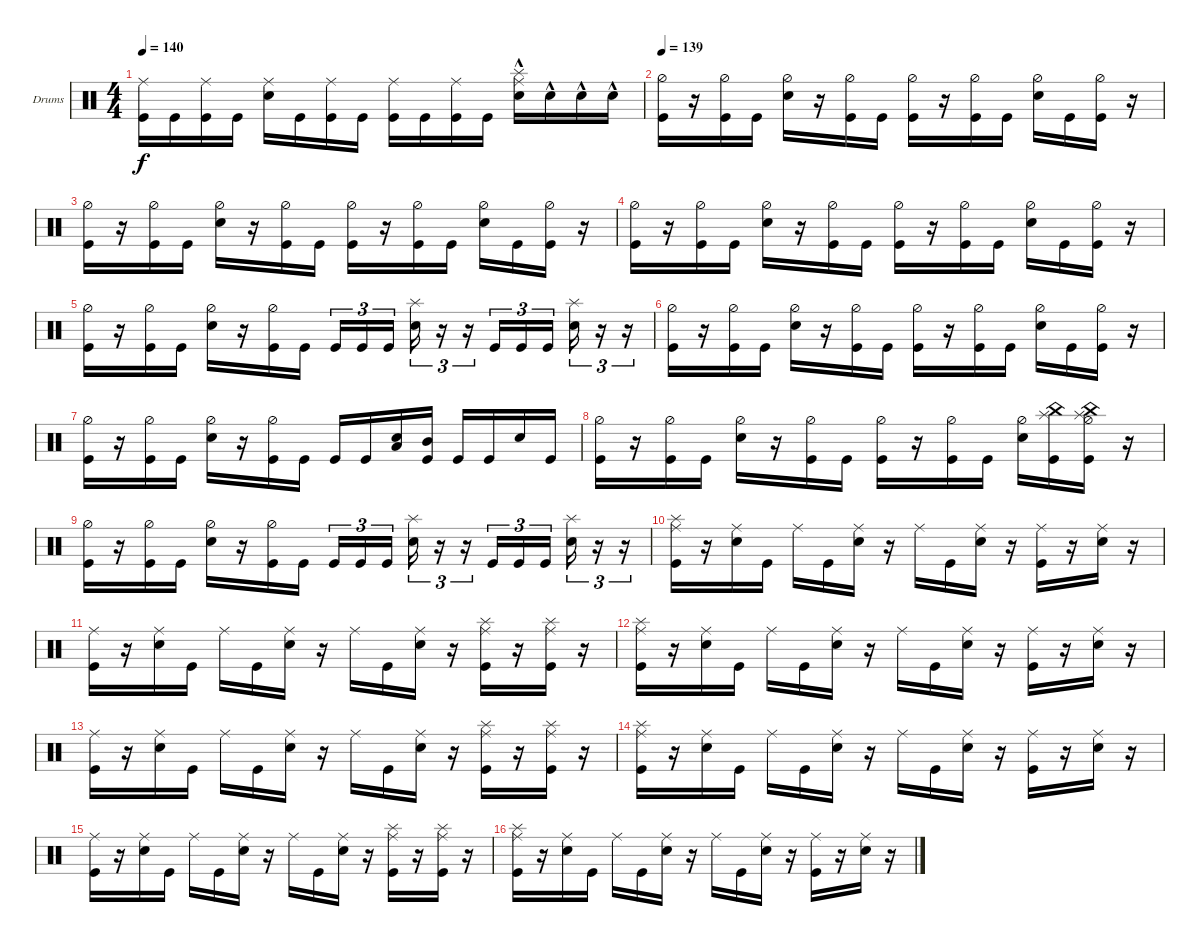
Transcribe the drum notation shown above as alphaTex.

\bracketExtendMode groupsimilarinstruments
\firstSystemTrackNameOrientation horizontal
\otherSystemsTrackNameOrientation horizontal
\track ("Drumkit" "Drums") {instrument percussion}
\staff {score}
\articulation defaults
\ts (4 4)
\tempo 140
\clef neutral
\ks c
("Kick (hit)" "Ride (middle)").16{dy f} "Kick (hit)".16 ("Kick (hit)" "Ride (middle)").16 "Kick (hit)".16 ("Snare (hit) 2" "Ride (middle)").16 "Kick (hit)".16 ("Kick (hit)" "Ride (middle)").16 "Kick (hit)".16 ("Kick (hit)" "Ride (middle)").16 "Kick (hit)".16 ("Kick (hit)" "Ride (middle)").16 "Kick (hit)".16 ("Snare (hit) 2"{hac} "Ride (middle)" "Splash (hit)").16 "Snare (hit) 2"{hac}.16 "Snare (hit) 2"{hac}.16 "Snare (hit) 2"{hac}.16 |
\tempo 139
("Kick (hit)" "Hi-Hat (half)").16 r.16 ("Kick (hit)" "Hi-Hat (half)").16 "Kick (hit)".16 ("Snare (hit) 2" "Hi-Hat (half)").16 r.16 ("Kick (hit)" "Hi-Hat (half)").16 "Kick (hit)".16 ("Kick (hit)" "Hi-Hat (half)").16 r.16 ("Kick (hit)" "Hi-Hat (half)").16 "Kick (hit)".16 ("Snare (hit) 2" "Hi-Hat (half)").16 "Kick (hit)".16 ("Kick (hit)" "Hi-Hat (half)").16 r.16 |
("Kick (hit)" "Hi-Hat (half)").16 r.16 ("Kick (hit)" "Hi-Hat (half)").16 "Kick (hit)".16 ("Snare (hit) 2" "Hi-Hat (half)").16 r.16 ("Kick (hit)" "Hi-Hat (half)").16 "Kick (hit)".16 ("Kick (hit)" "Hi-Hat (half)").16 r.16 ("Kick (hit)" "Hi-Hat (half)").16 "Kick (hit)".16 ("Snare (hit) 2" "Hi-Hat (half)").16 "Kick (hit)".16 ("Kick (hit)" "Hi-Hat (half)").16 r.16 |
("Kick (hit)" "Hi-Hat (half)").16 r.16 ("Kick (hit)" "Hi-Hat (half)").16 "Kick (hit)".16 ("Snare (hit) 2" "Hi-Hat (half)").16 r.16 ("Kick (hit)" "Hi-Hat (half)").16 "Kick (hit)".16 ("Kick (hit)" "Hi-Hat (half)").16 r.16 ("Kick (hit)" "Hi-Hat (half)").16 "Kick (hit)".16 ("Snare (hit) 2" "Hi-Hat (half)").16 "Kick (hit)".16 ("Kick (hit)" "Hi-Hat (half)").16 r.16 |
("Kick (hit)" "Hi-Hat (half)").16 r.16 ("Kick (hit)" "Hi-Hat (half)").16 "Kick (hit)".16 ("Snare (hit) 2" "Hi-Hat (half)").16 r.16 ("Kick (hit)" "Hi-Hat (half)").16 "Kick (hit)".16 "Kick (hit)".16{tu (3 2)} "Kick (hit)".16{tu (3 2)} "Kick (hit)".16{tu (3 2)} ("Snare (hit) 2" "Splash (hit)").16{tu (3 2)} r.16{tu (3 2)} r.16{tu (3 2)} "Kick (hit)".16{tu (3 2)} "Kick (hit)".16{tu (3 2)} "Kick (hit)".16{tu (3 2)} ("Snare (hit) 2" "Splash (hit)").16{tu (3 2)} r.16{tu (3 2)} r.16{tu (3 2)} |
("Kick (hit)" "Hi-Hat (half)").16 r.16 ("Kick (hit)" "Hi-Hat (half)").16 "Kick (hit)".16 ("Snare (hit) 2" "Hi-Hat (half)").16 r.16 ("Kick (hit)" "Hi-Hat (half)").16 "Kick (hit)".16 ("Kick (hit)" "Hi-Hat (half)").16 r.16 ("Kick (hit)" "Hi-Hat (half)").16 "Kick (hit)".16 ("Snare (hit) 2" "Hi-Hat (half)").16 "Kick (hit)".16 ("Kick (hit)" "Hi-Hat (half)").16 r.16 |
("Kick (hit)" "Hi-Hat (half)").16 r.16 ("Kick (hit)" "Hi-Hat (half)").16 "Kick (hit)".16 ("Snare (hit) 2" "Hi-Hat (half)").16 r.16 ("Kick (hit)" "Hi-Hat (half)").16 "Kick (hit)".16 "Kick (hit)".16 "Kick (hit)".16 ("Snare (hit) 2" "Low Tom (hit)").16 ("Mid Tom (hit)" "Kick (hit)").16 "Kick (hit)".16 "Kick (hit)".16 "Snare (hit) 2".16 "Kick (hit)".16 |
("Kick (hit)" "Hi-Hat (half)").16 r.16 ("Kick (hit)" "Hi-Hat (half)").16 "Kick (hit)".16 ("Snare (hit) 2" "Hi-Hat (half)").16 r.16 ("Kick (hit)" "Hi-Hat (half)").16 "Kick (hit)".16 ("Kick (hit)" "Hi-Hat (half)").16 r.16 ("Kick (hit)" "Hi-Hat (half)").16 "Kick (hit)".16 ("Snare (hit) 2" "Hi-Hat (half)").16 ("Kick (hit)" "China (hit)" "Splash (hit)").16 ("Kick (hit)" "Hi-Hat (half)" "China (hit)" "Splash (hit)").16 r.16 |
("Kick (hit)" "Hi-Hat (half)").16 r.16 ("Kick (hit)" "Hi-Hat (half)").16 "Kick (hit)".16 ("Snare (hit) 2" "Hi-Hat (half)").16 r.16 ("Kick (hit)" "Hi-Hat (half)").16 "Kick (hit)".16 "Kick (hit)".16{tu (3 2)} "Kick (hit)".16{tu (3 2)} "Kick (hit)".16{tu (3 2)} ("Snare (hit) 2" "Splash (hit)").16{tu (3 2)} r.16{tu (3 2)} r.16{tu (3 2)} "Kick (hit)".16{tu (3 2)} "Kick (hit)".16{tu (3 2)} "Kick (hit)".16{tu (3 2)} ("Snare (hit) 2" "Splash (hit)").16{tu (3 2)} r.16{tu (3 2)} r.16{tu (3 2)} |
("Kick (hit)" "Ride (middle)" "Splash (hit)").16 r.16 ("Snare (hit) 2" "Ride (middle)").16 "Kick (hit)".16 "Ride (middle)".16 "Kick (hit)".16 ("Snare (hit) 2" "Ride (middle)").16 r.16 "Ride (middle)".16 "Kick (hit)".16 ("Snare (hit) 2" "Ride (middle)").16 r.16 ("Kick (hit)" "Ride (middle)").16 r.16 ("Snare (hit) 2" "Ride (middle)").16 r.16 |
("Kick (hit)" "Ride (middle)").16 r.16 ("Snare (hit) 2" "Ride (middle)").16 "Kick (hit)".16 "Ride (middle)".16 "Kick (hit)".16 ("Snare (hit) 2" "Ride (middle)").16 r.16 "Ride (middle)".16 "Kick (hit)".16 ("Snare (hit) 2" "Ride (middle)").16 r.16 ("Kick (hit)" "Ride (middle)" "Splash (hit)").16 r.16 ("Kick (hit)" "Ride (middle)" "Splash (hit)").16 r.16 |
("Kick (hit)" "Ride (middle)" "Splash (hit)").16 r.16 ("Snare (hit) 2" "Ride (middle)").16 "Kick (hit)".16 "Ride (middle)".16 "Kick (hit)".16 ("Snare (hit) 2" "Ride (middle)").16 r.16 "Ride (middle)".16 "Kick (hit)".16 ("Snare (hit) 2" "Ride (middle)").16 r.16 ("Kick (hit)" "Ride (middle)").16 r.16 ("Snare (hit) 2" "Ride (middle)").16 r.16 |
("Kick (hit)" "Ride (middle)").16 r.16 ("Snare (hit) 2" "Ride (middle)").16 "Kick (hit)".16 "Ride (middle)".16 "Kick (hit)".16 ("Snare (hit) 2" "Ride (middle)").16 r.16 "Ride (middle)".16 "Kick (hit)".16 ("Snare (hit) 2" "Ride (middle)").16 r.16 ("Kick (hit)" "Ride (middle)" "Splash (hit)").16 r.16 ("Kick (hit)" "Ride (middle)" "Splash (hit)").16 r.16 |
("Kick (hit)" "Ride (middle)" "Splash (hit)").16 r.16 ("Snare (hit) 2" "Ride (middle)").16 "Kick (hit)".16 "Ride (middle)".16 "Kick (hit)".16 ("Snare (hit) 2" "Ride (middle)").16 r.16 "Ride (middle)".16 "Kick (hit)".16 ("Snare (hit) 2" "Ride (middle)").16 r.16 ("Kick (hit)" "Ride (middle)").16 r.16 ("Snare (hit) 2" "Ride (middle)").16 r.16 |
("Kick (hit)" "Ride (middle)").16 r.16 ("Snare (hit) 2" "Ride (middle)").16 "Kick (hit)".16 "Ride (middle)".16 "Kick (hit)".16 ("Snare (hit) 2" "Ride (middle)").16 r.16 "Ride (middle)".16 "Kick (hit)".16 ("Snare (hit) 2" "Ride (middle)").16 r.16 ("Kick (hit)" "Ride (middle)" "Splash (hit)").16 r.16 ("Kick (hit)" "Ride (middle)" "Splash (hit)").16 r.16 |
("Kick (hit)" "Ride (middle)" "Splash (hit)").16 r.16 ("Snare (hit) 2" "Ride (middle)").16 "Kick (hit)".16 "Ride (middle)".16 "Kick (hit)".16 ("Snare (hit) 2" "Ride (middle)").16 r.16 "Ride (middle)".16 "Kick (hit)".16 ("Snare (hit) 2" "Ride (middle)").16 r.16 ("Kick (hit)" "Ride (middle)").16 r.16 ("Snare (hit) 2" "Ride (middle)").16 r.16
